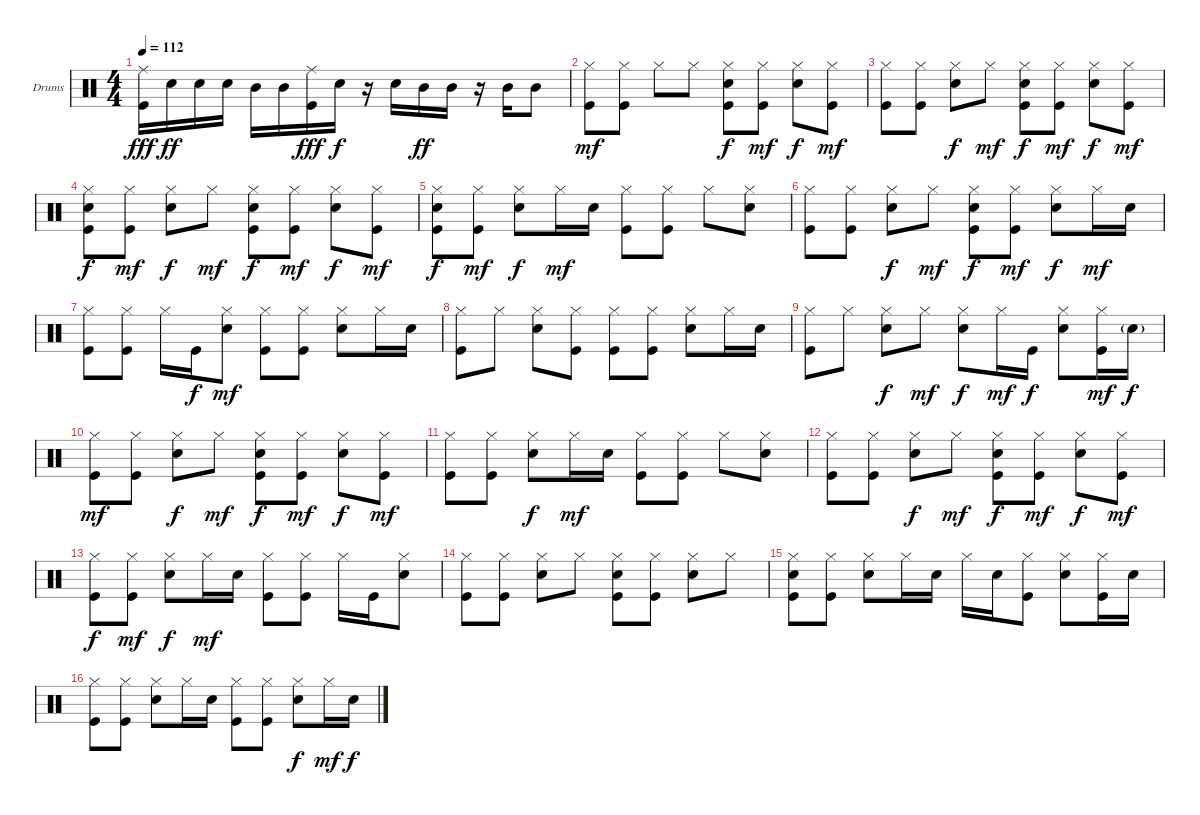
\bracketExtendMode groupsimilarinstruments
\firstSystemTrackNameOrientation horizontal
\otherSystemsTrackNameOrientation horizontal
\track ("Drumkit" "Drums") {instrument percussion}
\staff {score}
\articulation defaults
\ts (4 4)
\tempo 112
\clef neutral
\ks c
("Ride (middle)" "Kick (hit)").16{dy fff} "Snare (hit) 2".16{dy ff} "Snare (hit) 2".16 "Snare (hit) 2".16 "Mid Tom (hit)".16 "Mid Tom (hit)".16 ("Ride (middle)" "Kick (hit)").16{dy fff} "Snare (hit) 2".16{dy f} r.16 "Snare (hit) 2".16 "Mid Tom (hit)".16{dy ff} "Mid Tom (hit)".16 r.16 "Mid Tom (hit)".16 "Mid Tom (hit)".8 |
("Hi-Hat (closed)" "Kick (hit)").8{dy mf} ("Hi-Hat (closed)" "Kick (hit)").8 "Hi-Hat (closed)".8 "Hi-Hat (closed)".8 ("Hi-Hat (closed)" "Snare (hit) 2" "Kick (hit)").8{dy f} ("Hi-Hat (closed)" "Kick (hit)").8{dy mf} ("Hi-Hat (closed)" "Snare (hit) 2").8{dy f} ("Hi-Hat (closed)" "Kick (hit)").8{dy mf} |
("Hi-Hat (closed)" "Kick (hit)").8 ("Hi-Hat (closed)" "Kick (hit)").8 ("Hi-Hat (closed)" "Snare (hit) 2").8{dy f} "Hi-Hat (closed)".8{dy mf} ("Hi-Hat (closed)" "Snare (hit) 2" "Kick (hit)").8{dy f} ("Hi-Hat (closed)" "Kick (hit)").8{dy mf} ("Hi-Hat (closed)" "Snare (hit) 2").8{dy f} ("Hi-Hat (closed)" "Kick (hit)").8{dy mf} |
("Hi-Hat (closed)" "Snare (hit) 2" "Kick (hit)").8{dy f} ("Hi-Hat (closed)" "Kick (hit)").8{dy mf} ("Hi-Hat (closed)" "Snare (hit) 2").8{dy f} "Hi-Hat (closed)".8{dy mf} ("Hi-Hat (closed)" "Snare (hit) 2" "Kick (hit)").8{dy f} ("Hi-Hat (closed)" "Kick (hit)").8{dy mf} ("Hi-Hat (closed)" "Snare (hit) 2").8{dy f} ("Hi-Hat (closed)" "Kick (hit)").8{dy mf} |
("Hi-Hat (closed)" "Snare (hit) 2" "Kick (hit)").8{dy f} ("Hi-Hat (closed)" "Kick (hit)").8{dy mf} ("Hi-Hat (closed)" "Snare (hit) 2").8{dy f} "Hi-Hat (closed)".16{dy mf} "Snare (hit) 2".16 ("Hi-Hat (closed)" "Kick (hit)").8 ("Hi-Hat (closed)" "Kick (hit)").8 "Hi-Hat (closed)".8 ("Hi-Hat (closed)" "Snare (hit) 2").8 |
("Hi-Hat (closed)" "Kick (hit)").8 ("Hi-Hat (closed)" "Kick (hit)").8 ("Hi-Hat (closed)" "Snare (hit) 2").8{dy f} "Hi-Hat (closed)".8{dy mf} ("Hi-Hat (closed)" "Snare (hit) 2" "Kick (hit)").8{dy f} ("Hi-Hat (closed)" "Kick (hit)").8{dy mf} ("Hi-Hat (closed)" "Snare (hit) 2").8{dy f} "Hi-Hat (closed)".16{dy mf} "Snare (hit) 2".16 |
("Hi-Hat (closed)" "Kick (hit)").8 ("Hi-Hat (closed)" "Kick (hit)").8 "Hi-Hat (closed)".16 "Kick (hit)".16{dy f} ("Hi-Hat (closed)" "Snare (hit) 2").8{dy mf} ("Hi-Hat (closed)" "Kick (hit)").8 ("Hi-Hat (closed)" "Kick (hit)").8 ("Hi-Hat (closed)" "Snare (hit) 2").8 "Hi-Hat (closed)".16 "Snare (hit) 2".16 |
("Hi-Hat (closed)" "Kick (hit)").8 "Hi-Hat (closed)".8 ("Hi-Hat (closed)" "Snare (hit) 2").8 ("Hi-Hat (closed)" "Kick (hit)").8 ("Hi-Hat (closed)" "Kick (hit)").8 ("Hi-Hat (closed)" "Kick (hit)").8 ("Hi-Hat (closed)" "Snare (hit) 2").8 "Hi-Hat (closed)".16 "Snare (hit) 2".16 |
("Hi-Hat (closed)" "Kick (hit)").8 "Hi-Hat (closed)".8 ("Hi-Hat (closed)" "Snare (hit) 2").8{dy f} "Hi-Hat (closed)".8{dy mf} ("Hi-Hat (closed)" "Snare (hit) 2").8{dy f} "Hi-Hat (closed)".16{dy mf} "Kick (hit)".16{dy f} ("Hi-Hat (closed)" "Snare (hit) 2").8 ("Hi-Hat (closed)" "Kick (hit)").16{dy mf} "Snare (hit) 2"{g}.16{dy f} |
("Hi-Hat (closed)" "Kick (hit)").8{dy mf} ("Hi-Hat (closed)" "Kick (hit)").8 ("Hi-Hat (closed)" "Snare (hit) 2").8{dy f} "Hi-Hat (closed)".8{dy mf} ("Hi-Hat (closed)" "Snare (hit) 2" "Kick (hit)").8{dy f} ("Hi-Hat (closed)" "Kick (hit)").8{dy mf} ("Hi-Hat (closed)" "Snare (hit) 2").8{dy f} ("Hi-Hat (closed)" "Kick (hit)").8{dy mf} |
("Hi-Hat (closed)" "Kick (hit)").8 ("Hi-Hat (closed)" "Kick (hit)").8 ("Hi-Hat (closed)" "Snare (hit) 2").8{dy f} "Hi-Hat (closed)".16{dy mf} "Snare (hit) 2".16 ("Hi-Hat (closed)" "Kick (hit)").8 ("Hi-Hat (closed)" "Kick (hit)").8 "Hi-Hat (closed)".8 ("Hi-Hat (closed)" "Snare (hit) 2").8 |
("Hi-Hat (closed)" "Kick (hit)").8 ("Hi-Hat (closed)" "Kick (hit)").8 ("Hi-Hat (closed)" "Snare (hit) 2").8{dy f} "Hi-Hat (closed)".8{dy mf} ("Hi-Hat (closed)" "Snare (hit) 2" "Kick (hit)").8{dy f} ("Hi-Hat (closed)" "Kick (hit)").8{dy mf} ("Hi-Hat (closed)" "Snare (hit) 2").8{dy f} ("Hi-Hat (closed)" "Kick (hit)").8{dy mf} |
("Hi-Hat (closed)" "Kick (hit)").8{dy f} ("Hi-Hat (closed)" "Kick (hit)").8{dy mf} ("Hi-Hat (closed)" "Snare (hit) 2").8{dy f} "Hi-Hat (closed)".16{dy mf} "Snare (hit) 2".16 ("Hi-Hat (closed)" "Kick (hit)").8 ("Hi-Hat (closed)" "Kick (hit)").8 "Hi-Hat (closed)".16 "Kick (hit)".16 ("Hi-Hat (closed)" "Snare (hit) 2").8 |
("Hi-Hat (closed)" "Kick (hit)").8 ("Hi-Hat (closed)" "Kick (hit)").8 ("Hi-Hat (closed)" "Snare (hit) 2").8 "Hi-Hat (closed)".8 ("Hi-Hat (closed)" "Snare (hit) 2" "Kick (hit)").8 ("Hi-Hat (closed)" "Kick (hit)").8 ("Hi-Hat (closed)" "Snare (hit) 2").8 "Hi-Hat (closed)".8 |
("Hi-Hat (closed)" "Snare (hit) 2" "Kick (hit)").8 ("Hi-Hat (closed)" "Kick (hit)").8 ("Hi-Hat (closed)" "Snare (hit) 2").8 "Hi-Hat (closed)".16 "Snare (hit) 2".16 "Hi-Hat (closed)".16 "Snare (hit) 2".16 ("Hi-Hat (closed)" "Kick (hit)").8 ("Hi-Hat (closed)" "Snare (hit) 2").8 ("Hi-Hat (closed)" "Kick (hit)").16 "Snare (hit) 2".16 |
("Hi-Hat (closed)" "Kick (hit)").8 ("Hi-Hat (closed)" "Kick (hit)").8 ("Hi-Hat (closed)" "Snare (hit) 2").8 "Hi-Hat (closed)".16 "Snare (hit) 2".16 ("Hi-Hat (closed)" "Kick (hit)").8 ("Hi-Hat (closed)" "Kick (hit)").8 ("Hi-Hat (closed)" "Snare (hit) 2").8{dy f} "Hi-Hat (closed)".16{dy mf} "Snare (hit) 2".16{dy f}
